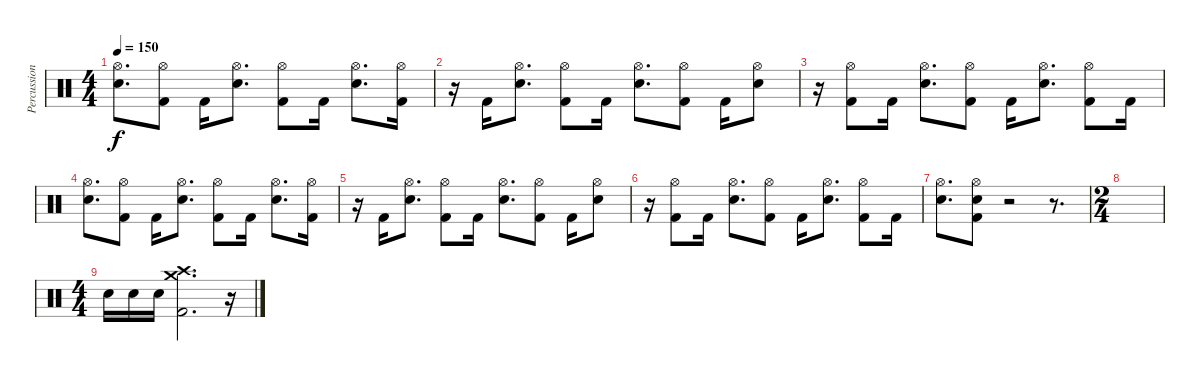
\track ("Percussion" "Percussion") {instrument percussion}
\staff {score}
\articulation defaults
\ts (4 4)
\tempo 150
\clef neutral
\ks c
("Hi-Hat (open)" "Electric Snare (hit)").8{d dy f} ("Hi-Hat (open)" "Kick (hit) 2").8 "Kick (hit) 2".16 ("Hi-Hat (open)" "Electric Snare (hit)").8{d} ("Hi-Hat (open)" "Kick (hit) 2").8 "Kick (hit) 2".16 ("Hi-Hat (open)" "Electric Snare (hit)").8{d} ("Hi-Hat (open)" "Kick (hit) 2").16 |
r.16 "Kick (hit) 2".16 ("Hi-Hat (open)" "Electric Snare (hit)").8{d} ("Hi-Hat (open)" "Kick (hit) 2").8 "Kick (hit) 2".16 ("Hi-Hat (open)" "Electric Snare (hit)").8{d} ("Hi-Hat (open)" "Kick (hit) 2").8 "Kick (hit) 2".16 ("Hi-Hat (open)" "Electric Snare (hit)").8 |
r.16 ("Hi-Hat (open)" "Kick (hit) 2").8 "Kick (hit) 2".16 ("Hi-Hat (open)" "Electric Snare (hit)").8{d} ("Hi-Hat (open)" "Kick (hit) 2").8 "Kick (hit) 2".16 ("Hi-Hat (open)" "Electric Snare (hit)").8{d} ("Hi-Hat (open)" "Kick (hit) 2").8 "Kick (hit) 2".16 |
("Hi-Hat (open)" "Electric Snare (hit)").8{d} ("Hi-Hat (open)" "Kick (hit) 2").8 "Kick (hit) 2".16 ("Hi-Hat (open)" "Electric Snare (hit)").8{d} ("Hi-Hat (open)" "Kick (hit) 2").8 "Kick (hit) 2".16 ("Hi-Hat (open)" "Electric Snare (hit)").8{d} ("Hi-Hat (open)" "Kick (hit) 2").16 |
r.16 "Kick (hit) 2".16 ("Hi-Hat (open)" "Electric Snare (hit)").8{d} ("Hi-Hat (open)" "Kick (hit) 2").8 "Kick (hit) 2".16 ("Hi-Hat (open)" "Electric Snare (hit)").8{d} ("Hi-Hat (open)" "Kick (hit) 2").8 "Kick (hit) 2".16 ("Hi-Hat (open)" "Electric Snare (hit)").8 |
r.16 ("Hi-Hat (open)" "Kick (hit) 2").8 "Kick (hit) 2".16 ("Hi-Hat (open)" "Electric Snare (hit)").8{d} ("Hi-Hat (open)" "Kick (hit) 2").8 "Kick (hit) 2".16 ("Hi-Hat (open)" "Electric Snare (hit)").8{d} ("Hi-Hat (open)" "Kick (hit) 2").8 "Kick (hit) 2".16 |
("Hi-Hat (open)" "Electric Snare (hit)").8{d} ("Hi-Hat (open)" "Electric Snare (hit)" "Kick (hit) 2").8 r.2 r.8{d} |
\ts (2 4)
|
\ts (4 4)
"Electric Snare (hit)".16 "Electric Snare (hit)".16 "Electric Snare (hit)".16 ("Crash medium (hit)" "Crash high (hit)" "Kick (hit) 2").2{d} r.16
